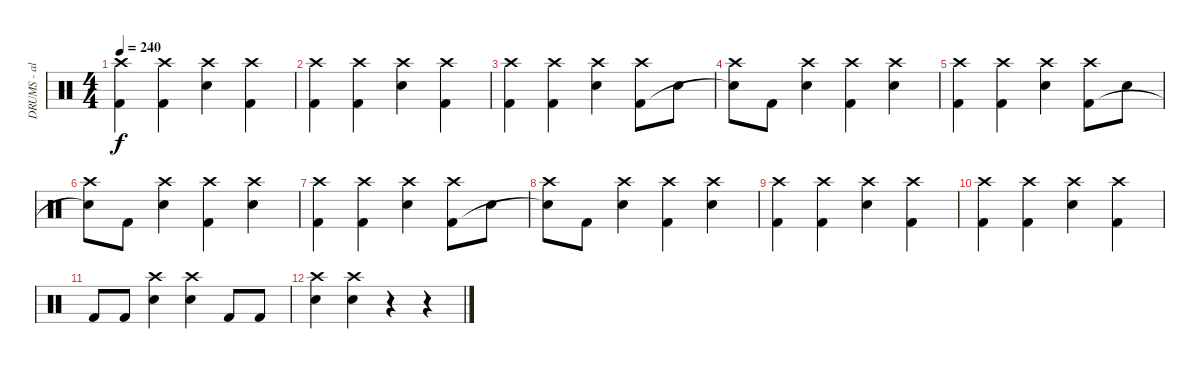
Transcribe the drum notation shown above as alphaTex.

\track ("DRUMS - alastor" "DRUMS - al") {instrument percussion}
\staff {score}
\articulation defaults
\ts (4 4)
\tempo 240
\clef neutral
\ks c
("Crash high (hit)" "Kick (hit) 2").4{dy f} ("Crash high (hit)" "Kick (hit) 2").4 ("Crash high (hit)" "Snare (hit) 2").4 ("Crash high (hit)" "Kick (hit) 2").4 |
("Crash high (hit)" "Kick (hit) 2").4 ("Crash high (hit)" "Kick (hit) 2").4 ("Crash high (hit)" "Snare (hit) 2").4 ("Crash high (hit)" "Kick (hit) 2").4 |
("Crash high (hit)" "Kick (hit) 2").4 ("Crash high (hit)" "Kick (hit) 2").4 ("Crash high (hit)" "Snare (hit) 2").4 ("Crash high (hit)" "Kick (hit) 2").8 "Snare (hit) 2".8 |
("Crash high (hit)" "Snare (hit) 2"{t}).8 "Kick (hit) 2".8 ("Crash high (hit)" "Snare (hit) 2").4 ("Crash high (hit)" "Kick (hit) 2").4 ("Crash high (hit)" "Snare (hit) 2").4 |
("Crash high (hit)" "Kick (hit) 2").4 ("Crash high (hit)" "Kick (hit) 2").4 ("Crash high (hit)" "Snare (hit) 2").4 ("Crash high (hit)" "Kick (hit) 2").8 "Snare (hit) 2".8 |
("Crash high (hit)" "Snare (hit) 2"{t}).8 "Kick (hit) 2".8 ("Crash high (hit)" "Snare (hit) 2").4 ("Crash high (hit)" "Kick (hit) 2").4 ("Crash high (hit)" "Snare (hit) 2").4 |
("Crash high (hit)" "Kick (hit) 2").4 ("Crash high (hit)" "Kick (hit) 2").4 ("Crash high (hit)" "Snare (hit) 2").4 ("Crash high (hit)" "Kick (hit) 2").8 "Snare (hit) 2".8 |
("Crash high (hit)" "Snare (hit) 2"{t}).8 "Kick (hit) 2".8 ("Crash high (hit)" "Snare (hit) 2").4 ("Crash high (hit)" "Kick (hit) 2").4 ("Crash high (hit)" "Snare (hit) 2").4 |
("Crash high (hit)" "Kick (hit) 2").4 ("Crash high (hit)" "Kick (hit) 2").4 ("Crash high (hit)" "Snare (hit) 2").4 ("Crash high (hit)" "Kick (hit) 2").4 |
("Crash high (hit)" "Kick (hit) 2").4 ("Crash high (hit)" "Kick (hit) 2").4 ("Crash high (hit)" "Snare (hit) 2").4 ("Crash high (hit)" "Kick (hit) 2").4 |
"Kick (hit) 2".8 "Kick (hit) 2".8 ("Crash high (hit)" "Snare (hit) 2").4 ("Crash high (hit)" "Snare (hit) 2").4 "Kick (hit) 2".8 "Kick (hit) 2".8 |
("Crash high (hit)" "Snare (hit) 2").4 ("Crash high (hit)" "Snare (hit) 2").4 r.4 r.4
